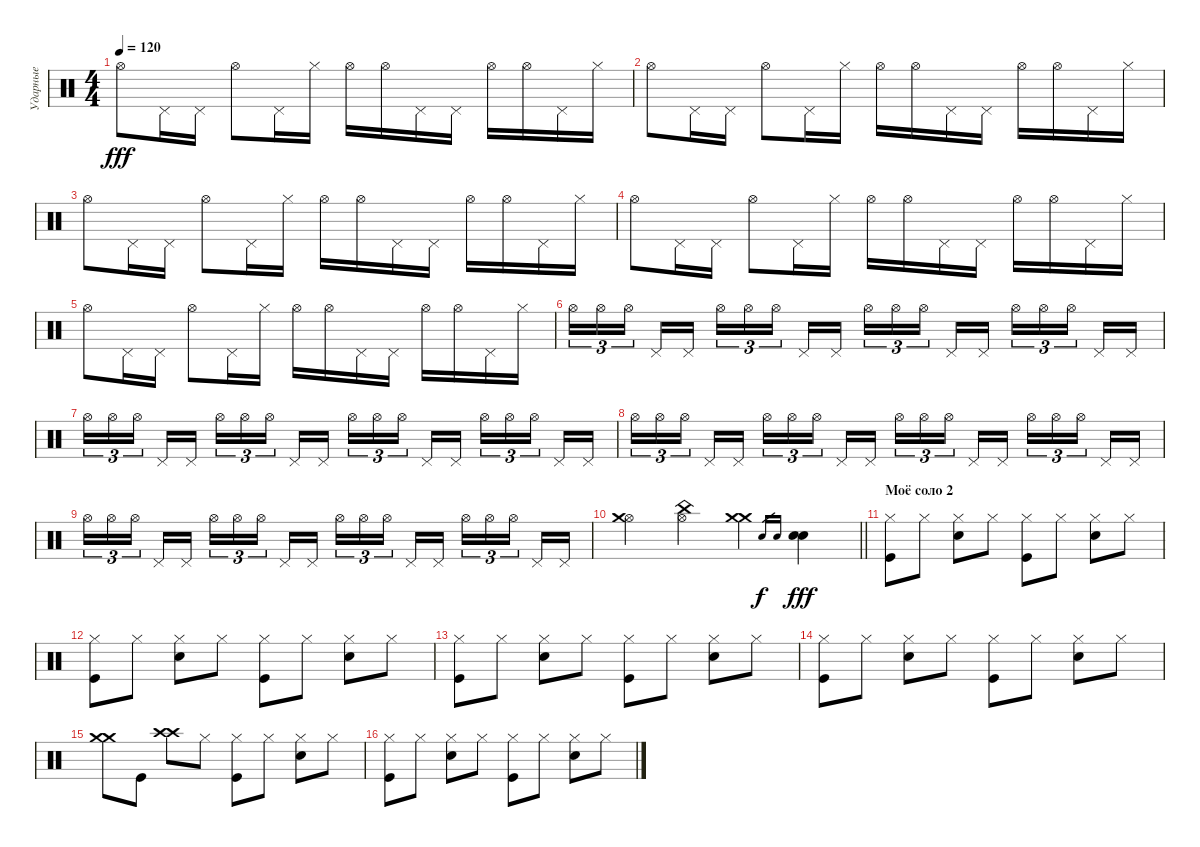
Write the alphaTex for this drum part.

\track ("Ударные" "Ударные") {instrument percussion}
\staff {score}
\articulation defaults
\ts (4 4)
\tempo 120
\clef neutral
\ks c "Hi-Hat (open)".8{dy fff} "Pedal Hi-Hat (hit)".16 "Pedal Hi-Hat (hit)".16 "Hi-Hat (open)".8 "Pedal Hi-Hat (hit)".16 "Hi-Hat (closed)".16 "Hi-Hat (open)".16 "Hi-Hat (open)".16 "Pedal Hi-Hat (hit)".16 "Pedal Hi-Hat (hit)".16 "Hi-Hat (open)".16 "Hi-Hat (open)".16 "Pedal Hi-Hat (hit)".16 "Hi-Hat (closed)".16
|
"Hi-Hat (open)".8 "Pedal Hi-Hat (hit)".16 "Pedal Hi-Hat (hit)".16 "Hi-Hat (open)".8 "Pedal Hi-Hat (hit)".16 "Hi-Hat (closed)".16 "Hi-Hat (open)".16 "Hi-Hat (open)".16 "Pedal Hi-Hat (hit)".16 "Pedal Hi-Hat (hit)".16 "Hi-Hat (open)".16 "Hi-Hat (open)".16 "Pedal Hi-Hat (hit)".16 "Hi-Hat (closed)".16 |
"Hi-Hat (open)".8 "Pedal Hi-Hat (hit)".16 "Pedal Hi-Hat (hit)".16 "Hi-Hat (open)".8 "Pedal Hi-Hat (hit)".16 "Hi-Hat (closed)".16 "Hi-Hat (open)".16 "Hi-Hat (open)".16 "Pedal Hi-Hat (hit)".16 "Pedal Hi-Hat (hit)".16 "Hi-Hat (open)".16 "Hi-Hat (open)".16 "Pedal Hi-Hat (hit)".16 "Hi-Hat (closed)".16 |
"Hi-Hat (open)".8 "Pedal Hi-Hat (hit)".16 "Pedal Hi-Hat (hit)".16 "Hi-Hat (open)".8 "Pedal Hi-Hat (hit)".16 "Hi-Hat (closed)".16 "Hi-Hat (open)".16 "Hi-Hat (open)".16 "Pedal Hi-Hat (hit)".16 "Pedal Hi-Hat (hit)".16 "Hi-Hat (open)".16 "Hi-Hat (open)".16 "Pedal Hi-Hat (hit)".16 "Hi-Hat (closed)".16 |
"Hi-Hat (open)".8 "Pedal Hi-Hat (hit)".16 "Pedal Hi-Hat (hit)".16 "Hi-Hat (open)".8 "Pedal Hi-Hat (hit)".16 "Hi-Hat (closed)".16 "Hi-Hat (open)".16 "Hi-Hat (open)".16 "Pedal Hi-Hat (hit)".16 "Pedal Hi-Hat (hit)".16 "Hi-Hat (open)".16 "Hi-Hat (open)".16 "Pedal Hi-Hat (hit)".16 "Hi-Hat (closed)".16 |
"Hi-Hat (open)".16{tu (3 2)} "Hi-Hat (open)".16{tu (3 2)} "Hi-Hat (open)".16{tu (3 2) beam splitsecondary} "Pedal Hi-Hat (hit)".16 "Pedal Hi-Hat (hit)".16 "Hi-Hat (open)".16{tu (3 2)} "Hi-Hat (open)".16{tu (3 2)} "Hi-Hat (open)".16{tu (3 2) beam splitsecondary} "Pedal Hi-Hat (hit)".16 "Pedal Hi-Hat (hit)".16 "Hi-Hat (open)".16{tu (3 2)} "Hi-Hat (open)".16{tu (3 2)} "Hi-Hat (open)".16{tu (3 2) beam splitsecondary} "Pedal Hi-Hat (hit)".16 "Pedal Hi-Hat (hit)".16 "Hi-Hat (open)".16{tu (3 2)} "Hi-Hat (open)".16{tu (3 2)} "Hi-Hat (open)".16{tu (3 2) beam splitsecondary} "Pedal Hi-Hat (hit)".16 "Pedal Hi-Hat (hit)".16 |
"Hi-Hat (open)".16{tu (3 2)} "Hi-Hat (open)".16{tu (3 2)} "Hi-Hat (open)".16{tu (3 2) beam splitsecondary} "Pedal Hi-Hat (hit)".16 "Pedal Hi-Hat (hit)".16 "Hi-Hat (open)".16{tu (3 2)} "Hi-Hat (open)".16{tu (3 2)} "Hi-Hat (open)".16{tu (3 2) beam splitsecondary} "Pedal Hi-Hat (hit)".16 "Pedal Hi-Hat (hit)".16 "Hi-Hat (open)".16{tu (3 2)} "Hi-Hat (open)".16{tu (3 2)} "Hi-Hat (open)".16{tu (3 2) beam splitsecondary} "Pedal Hi-Hat (hit)".16 "Pedal Hi-Hat (hit)".16 "Hi-Hat (open)".16{tu (3 2)} "Hi-Hat (open)".16{tu (3 2)} "Hi-Hat (open)".16{tu (3 2) beam splitsecondary} "Pedal Hi-Hat (hit)".16 "Pedal Hi-Hat (hit)".16 |
"Hi-Hat (open)".16{tu (3 2)} "Hi-Hat (open)".16{tu (3 2)} "Hi-Hat (open)".16{tu (3 2) beam splitsecondary} "Pedal Hi-Hat (hit)".16 "Pedal Hi-Hat (hit)".16 "Hi-Hat (open)".16{tu (3 2)} "Hi-Hat (open)".16{tu (3 2)} "Hi-Hat (open)".16{tu (3 2) beam splitsecondary} "Pedal Hi-Hat (hit)".16 "Pedal Hi-Hat (hit)".16 "Hi-Hat (open)".16{tu (3 2)} "Hi-Hat (open)".16{tu (3 2)} "Hi-Hat (open)".16{tu (3 2) beam splitsecondary} "Pedal Hi-Hat (hit)".16 "Pedal Hi-Hat (hit)".16 "Hi-Hat (open)".16{tu (3 2)} "Hi-Hat (open)".16{tu (3 2)} "Hi-Hat (open)".16{tu (3 2) beam splitsecondary} "Pedal Hi-Hat (hit)".16 "Pedal Hi-Hat (hit)".16 |
"Hi-Hat (open)".16{tu (3 2)} "Hi-Hat (open)".16{tu (3 2)} "Hi-Hat (open)".16{tu (3 2) beam splitsecondary} "Pedal Hi-Hat (hit)".16 "Pedal Hi-Hat (hit)".16 "Hi-Hat (open)".16{tu (3 2)} "Hi-Hat (open)".16{tu (3 2)} "Hi-Hat (open)".16{tu (3 2) beam splitsecondary} "Pedal Hi-Hat (hit)".16 "Pedal Hi-Hat (hit)".16 "Hi-Hat (open)".16{tu (3 2)} "Hi-Hat (open)".16{tu (3 2)} "Hi-Hat (open)".16{tu (3 2) beam splitsecondary} "Pedal Hi-Hat (hit)".16 "Pedal Hi-Hat (hit)".16 "Hi-Hat (open)".16{tu (3 2)} "Hi-Hat (open)".16{tu (3 2)} "Hi-Hat (open)".16{tu (3 2) beam splitsecondary} "Pedal Hi-Hat (hit)".16 "Pedal Hi-Hat (hit)".16 |
\barLineRight lightlight
("Hi-Hat (open)" "Crash medium (hit)").4 ("Hi-Hat (open)" "China (hit)").4 ("Crash medium (hit)" "Crash medium (hit)").4 "Electric Snare (hit)".16{gr dy f} "Snare (hit) 2".16{gr} ("Electric Snare (hit)" "Snare (hit) 2").4{dy fff} |
\section ("" "Моё соло 2")
("Hi-Hat (closed)" "Kick (hit)").8 "Hi-Hat (closed)".8 ("Hi-Hat (closed)" "Electric Snare (hit)").8 "Hi-Hat (closed)".8 ("Hi-Hat (closed)" "Kick (hit)").8 "Hi-Hat (closed)".8 ("Hi-Hat (closed)" "Electric Snare (hit)").8 "Hi-Hat (closed)".8 |
("Hi-Hat (closed)" "Kick (hit)").8 "Hi-Hat (closed)".8 ("Hi-Hat (closed)" "Electric Snare (hit)").8 "Hi-Hat (closed)".8 ("Hi-Hat (closed)" "Kick (hit)").8 "Hi-Hat (closed)".8 ("Hi-Hat (closed)" "Electric Snare (hit)").8 "Hi-Hat (closed)".8 |
("Hi-Hat (closed)" "Kick (hit)").8 "Hi-Hat (closed)".8 ("Hi-Hat (closed)" "Electric Snare (hit)").8 "Hi-Hat (closed)".8 ("Hi-Hat (closed)" "Kick (hit)").8 "Hi-Hat (closed)".8 ("Hi-Hat (closed)" "Electric Snare (hit)").8 "Hi-Hat (closed)".8 |
("Hi-Hat (closed)" "Kick (hit)").8 "Hi-Hat (closed)".8 ("Hi-Hat (closed)" "Electric Snare (hit)").8 "Hi-Hat (closed)".8 ("Hi-Hat (closed)" "Kick (hit)").8 "Hi-Hat (closed)".8 ("Hi-Hat (closed)" "Electric Snare (hit)").8 "Hi-Hat (closed)".8 |
("Crash medium (hit)" "Crash medium (hit)").8 "Kick (hit)".8 ("Crash high (hit)" "Crash high (hit)").8 "Hi-Hat (closed)".8 ("Hi-Hat (closed)" "Kick (hit)").8 "Hi-Hat (closed)".8 ("Hi-Hat (closed)" "Electric Snare (hit)").8 "Hi-Hat (closed)".8 |
("Hi-Hat (closed)" "Kick (hit)").8 "Hi-Hat (closed)".8 ("Hi-Hat (closed)" "Electric Snare (hit)").8 "Hi-Hat (closed)".8 ("Hi-Hat (closed)" "Kick (hit)").8 "Hi-Hat (closed)".8 ("Hi-Hat (closed)" "Electric Snare (hit)").8 "Hi-Hat (closed)".8
